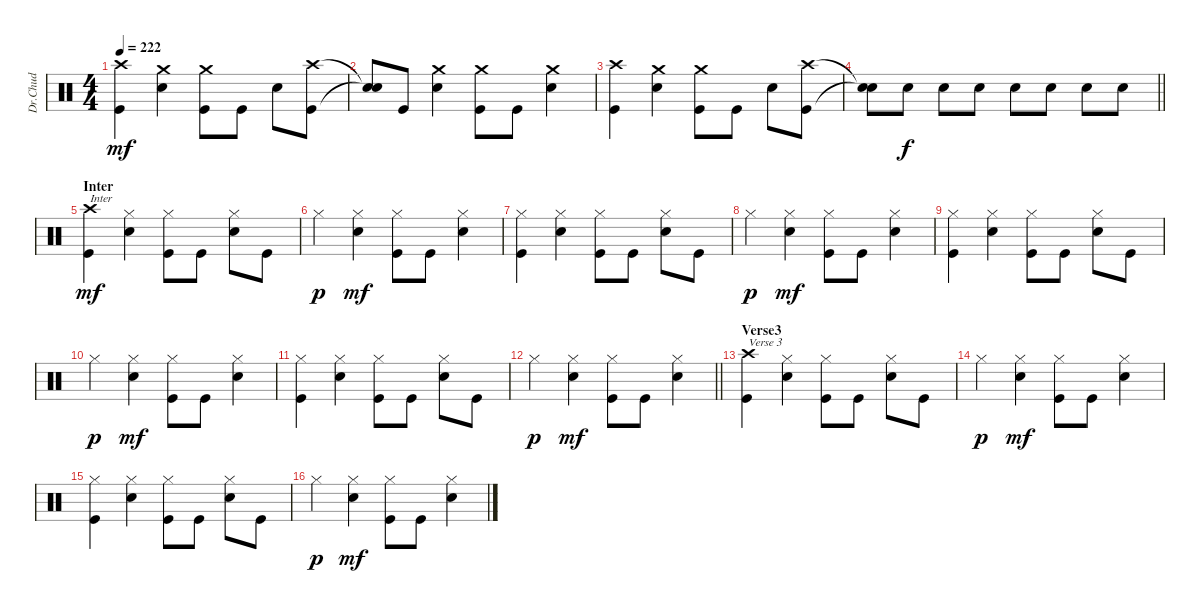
\track ("Dr.Chud" "Dr.Chud") {instrument percussion}
\staff {score}
\articulation defaults
\ts (4 4)
\tempo 222
\clef neutral
\ks c
("Crash high (hit)" "Kick (hit)").4{dy mf} ("Crash medium (hit)" "Electric Snare (hit)").4 ("Crash medium (hit)" "Kick (hit)").8 "Kick (hit)".8 "Electric Snare (hit)".8 ("Crash high (hit)" "Kick (hit)").8 |
("Snare (hit)"{t} "Snare (hit)"{t}).8 "Kick (hit)".8 ("Crash medium (hit)" "Electric Snare (hit)").4 ("Crash medium (hit)" "Kick (hit)").8 "Kick (hit)".8 ("Crash medium (hit)" "Electric Snare (hit)").4 |
("Crash high (hit)" "Kick (hit)").4 ("Crash medium (hit)" "Electric Snare (hit)").4 ("Crash medium (hit)" "Kick (hit)").8 "Kick (hit)".8 "Electric Snare (hit)".8 ("Crash high (hit)" "Kick (hit)").8 |
\barLineRight lightlight
("Snare (hit)"{t} "Snare (hit)"{t}).8 "Electric Snare (hit)".8{dy f} "Electric Snare (hit)".8 "Electric Snare (hit)".8 "Electric Snare (hit)".8 "Electric Snare (hit)".8 "Electric Snare (hit)".8 "Electric Snare (hit)".8 |
\section ("" "Inter")
("Crash high (hit)" "Kick (hit)").4{txt "Inter" dy mf} ("Hi-Hat (closed)" "Electric Snare (hit)").4 ("Hi-Hat (closed)" "Kick (hit)").8 "Kick (hit)".8 ("Hi-Hat (closed)" "Electric Snare (hit)").8 "Kick (hit)".8 |
"Hi-Hat (closed)".4{dy p} ("Hi-Hat (closed)" "Electric Snare (hit)").4{dy mf} ("Hi-Hat (closed)" "Kick (hit)").8 "Kick (hit)".8 ("Hi-Hat (closed)" "Electric Snare (hit)").4 |
("Hi-Hat (closed)" "Kick (hit)").4 ("Hi-Hat (closed)" "Electric Snare (hit)").4 ("Hi-Hat (closed)" "Kick (hit)").8 "Kick (hit)".8 ("Hi-Hat (closed)" "Electric Snare (hit)").8 "Kick (hit)".8 |
"Hi-Hat (closed)".4{dy p} ("Hi-Hat (closed)" "Electric Snare (hit)").4{dy mf} ("Hi-Hat (closed)" "Kick (hit)").8 "Kick (hit)".8 ("Hi-Hat (closed)" "Electric Snare (hit)").4 |
("Hi-Hat (closed)" "Kick (hit)").4 ("Hi-Hat (closed)" "Electric Snare (hit)").4 ("Hi-Hat (closed)" "Kick (hit)").8 "Kick (hit)".8 ("Hi-Hat (closed)" "Electric Snare (hit)").8 "Kick (hit)".8 |
"Hi-Hat (closed)".4{dy p} ("Hi-Hat (closed)" "Electric Snare (hit)").4{dy mf} ("Hi-Hat (closed)" "Kick (hit)").8 "Kick (hit)".8 ("Hi-Hat (closed)" "Electric Snare (hit)").4 |
("Hi-Hat (closed)" "Kick (hit)").4 ("Hi-Hat (closed)" "Electric Snare (hit)").4 ("Hi-Hat (closed)" "Kick (hit)").8 "Kick (hit)".8 ("Hi-Hat (closed)" "Electric Snare (hit)").8 "Kick (hit)".8 |
\barLineRight lightlight "Hi-Hat (closed)".4{dy p}
("Hi-Hat (closed)" "Electric Snare (hit)").4{dy mf} ("Hi-Hat (closed)" "Kick (hit)").8 "Kick (hit)".8 ("Hi-Hat (closed)" "Electric Snare (hit)").4 |
\section ("" "Verse3")
("Crash high (hit)" "Kick (hit)").4{txt "Verse 3"} ("Hi-Hat (closed)" "Electric Snare (hit)").4 ("Hi-Hat (closed)" "Kick (hit)").8 "Kick (hit)".8 ("Hi-Hat (closed)" "Electric Snare (hit)").8 "Kick (hit)".8 |
"Hi-Hat (closed)".4{dy p} ("Hi-Hat (closed)" "Electric Snare (hit)").4{dy mf} ("Hi-Hat (closed)" "Kick (hit)").8 "Kick (hit)".8 ("Hi-Hat (closed)" "Electric Snare (hit)").4 |
("Hi-Hat (closed)" "Kick (hit)").4 ("Hi-Hat (closed)" "Electric Snare (hit)").4 ("Hi-Hat (closed)" "Kick (hit)").8 "Kick (hit)".8 ("Hi-Hat (closed)" "Electric Snare (hit)").8 "Kick (hit)".8 |
"Hi-Hat (closed)".4{dy p} ("Hi-Hat (closed)" "Electric Snare (hit)").4{dy mf} ("Hi-Hat (closed)" "Kick (hit)").8 "Kick (hit)".8 ("Hi-Hat (closed)" "Electric Snare (hit)").4
